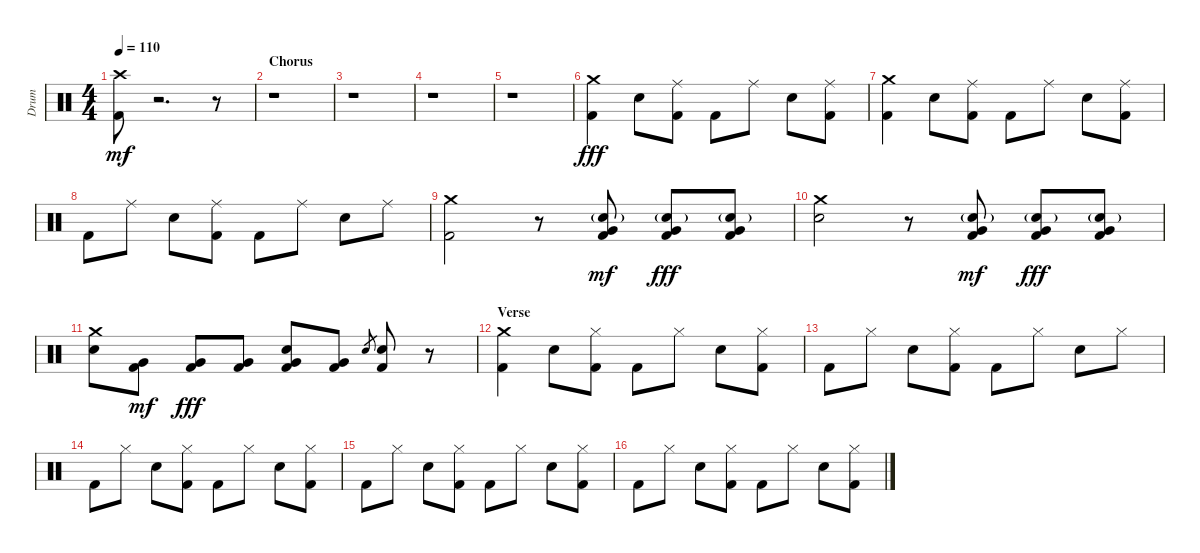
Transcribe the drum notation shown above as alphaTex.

\track ("Drum" "Drum") {instrument percussion}
\staff {score}
\articulation defaults
\ts (4 4)
\tempo 110
\clef neutral
\ks c
("Crash high (hit)" "Kick (hit) 2").8{dy mf} r.2{d} r.8 |
\section ("" "Chorus")
r.1 |
r.1 |
r.1 |
r.1 |
("Crash medium (hit)" "Kick (hit) 2").4{dy fff} "Electric Snare (hit)".8 ("Ride (middle)" "Kick (hit) 2").8 "Kick (hit) 2".8 "Ride (middle)".8 "Electric Snare (hit)".8 ("Ride (middle)" "Kick (hit) 2").8 |
("Crash medium (hit)" "Kick (hit) 2").4 "Electric Snare (hit)".8 ("Ride (middle)" "Kick (hit) 2").8 "Kick (hit) 2".8 "Ride (middle)".8 "Electric Snare (hit)".8 ("Ride (middle)" "Kick (hit) 2").8 |
"Kick (hit) 2".8 "Ride (middle)".8 "Electric Snare (hit)".8 ("Ride (middle)" "Kick (hit) 2").8 "Kick (hit) 2".8 "Ride (middle)".8 "Electric Snare (hit)".8 "Ride (middle)".8 |
("Crash medium (hit)" "Kick (hit) 2").2 r.8 ("Very Low Tom (hit)" "Kick (hit) 2" "Electric Snare (hit)"{g}).8{dy mf} ("Very Low Tom (hit)" "Kick (hit) 2" "Electric Snare (hit)"{g}).8{dy fff} ("Very Low Tom (hit)" "Kick (hit) 2" "Electric Snare (hit)"{g}).8 |
("Crash medium (hit)" "Electric Snare (hit)").2 r.8 ("Very Low Tom (hit)" "Kick (hit) 2" "Electric Snare (hit)"{g}).8{dy mf} ("Very Low Tom (hit)" "Kick (hit) 2" "Electric Snare (hit)"{g}).8{dy fff} ("Very Low Tom (hit)" "Kick (hit) 2" "Electric Snare (hit)"{g}).8 |
("Crash medium (hit)" "Electric Snare (hit)").8 ("Very Low Tom (hit)" "Kick (hit) 2").8{dy mf} ("Very Low Tom (hit)" "Kick (hit) 2").8{dy fff} ("Very Low Tom (hit)" "Kick (hit) 2").8 ("Very Low Tom (hit)" "Kick (hit) 2" "Electric Snare (hit)").8 ("Very Low Tom (hit)" "Kick (hit) 2").8 "Electric Snare (hit)".8{gr} ("Kick (hit) 2" "Electric Snare (hit)").8 r.8 |
\section ("" "Verse")
("Crash medium (hit)" "Kick (hit) 2").4 "Electric Snare (hit)".8 ("Hi-Hat (closed)" "Kick (hit) 2").8 "Kick (hit) 2".8 "Hi-Hat (closed)".8 "Electric Snare (hit)".8 ("Hi-Hat (closed)" "Kick (hit) 2").8 |
"Kick (hit) 2".8 "Hi-Hat (closed)".8 "Electric Snare (hit)".8 ("Hi-Hat (closed)" "Kick (hit) 2").8 "Kick (hit) 2".8 "Hi-Hat (closed)".8 "Electric Snare (hit)".8 "Hi-Hat (closed)".8 |
"Kick (hit) 2".8 "Hi-Hat (closed)".8 "Electric Snare (hit)".8 ("Hi-Hat (closed)" "Kick (hit) 2").8 "Kick (hit) 2".8 "Hi-Hat (closed)".8 "Electric Snare (hit)".8 ("Hi-Hat (closed)" "Kick (hit) 2").8 |
"Kick (hit) 2".8 "Hi-Hat (closed)".8 "Electric Snare (hit)".8 ("Hi-Hat (closed)" "Kick (hit) 2").8 "Kick (hit) 2".8 "Hi-Hat (closed)".8 "Electric Snare (hit)".8 ("Hi-Hat (closed)" "Kick (hit) 2").8 |
"Kick (hit) 2".8 "Hi-Hat (closed)".8 "Electric Snare (hit)".8 ("Hi-Hat (closed)" "Kick (hit) 2").8 "Kick (hit) 2".8 "Hi-Hat (closed)".8 "Electric Snare (hit)".8 ("Hi-Hat (closed)" "Kick (hit) 2").8
